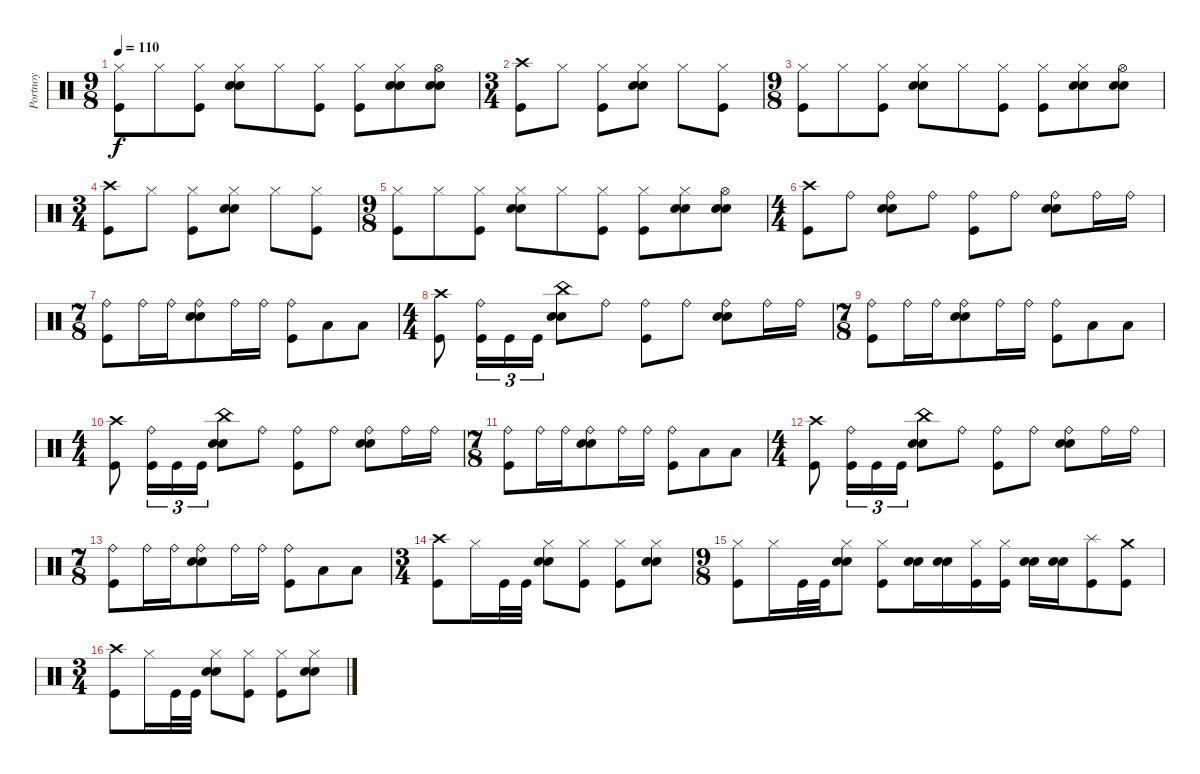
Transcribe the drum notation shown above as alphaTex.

\track ("Portnoy" "Portnoy") {instrument percussion}
\staff {score}
\articulation defaults
\ts (9 8)
\tempo 110
\clef neutral
\ks c
("Hi-Hat (closed)" "Kick (hit)").8{dy f} "Hi-Hat (closed)".8 ("Hi-Hat (closed)" "Kick (hit)").8 ("Hi-Hat (closed)" "Snare (hit) 2" "Electric Snare (hit)").8 "Hi-Hat (closed)".8 ("Hi-Hat (closed)" "Kick (hit)").8 ("Hi-Hat (closed)" "Kick (hit)").8 ("Hi-Hat (closed)" "Snare (hit) 2" "Electric Snare (hit)").8 ("Hi-Hat (open)" "Snare (hit) 2" "Electric Snare (hit)").8 |
\ts (3 4)
("Crash high (hit)" "Kick (hit)").8 "Hi-Hat (closed)".8 ("Hi-Hat (closed)" "Kick (hit)").8 ("Hi-Hat (closed)" "Snare (hit) 2" "Electric Snare (hit)").8 "Hi-Hat (closed)".8 ("Hi-Hat (closed)" "Kick (hit)").8 |
\ts (9 8)
("Hi-Hat (closed)" "Kick (hit)").8 "Hi-Hat (closed)".8 ("Hi-Hat (closed)" "Kick (hit)").8 ("Hi-Hat (closed)" "Snare (hit) 2" "Electric Snare (hit)").8 "Hi-Hat (closed)".8 ("Hi-Hat (closed)" "Kick (hit)").8 ("Hi-Hat (closed)" "Kick (hit)").8 ("Hi-Hat (closed)" "Snare (hit) 2" "Electric Snare (hit)").8 ("Hi-Hat (open)" "Snare (hit) 2" "Electric Snare (hit)").8 |
\ts (3 4)
("Crash high (hit)" "Kick (hit)").8 "Hi-Hat (closed)".8 ("Hi-Hat (closed)" "Kick (hit)").8 ("Hi-Hat (closed)" "Snare (hit) 2" "Electric Snare (hit)").8 "Hi-Hat (closed)".8 ("Hi-Hat (closed)" "Kick (hit)").8 |
\ts (9 8)
("Hi-Hat (closed)" "Kick (hit)").8 "Hi-Hat (closed)".8 ("Hi-Hat (closed)" "Kick (hit)").8 ("Hi-Hat (closed)" "Snare (hit) 2" "Electric Snare (hit)").8 "Hi-Hat (closed)".8 ("Hi-Hat (closed)" "Kick (hit)").8 ("Hi-Hat (closed)" "Kick (hit)").8 ("Hi-Hat (closed)" "Snare (hit) 2" "Electric Snare (hit)").8 ("Hi-Hat (open)" "Snare (hit) 2" "Electric Snare (hit)").8 |
\ts (4 4)
("Crash high (hit)" "Kick (hit)").8 "Ride (bell)".8 ("Ride (bell)" "Snare (hit) 2" "Electric Snare (hit)").8 "Ride (bell)".8 ("Ride (bell)" "Kick (hit)").8 "Ride (bell)".8 ("Ride (bell)" "Snare (hit) 2" "Electric Snare (hit)").8 "Ride (bell)".16 "Ride (bell)".16 |
\ts (7 8)
("Ride (bell)" "Kick (hit)").8 "Ride (bell)".16 "Ride (bell)".16 ("Ride (bell)" "Snare (hit) 2" "Electric Snare (hit)").8 "Ride (bell)".16 "Ride (bell)".16 ("Ride (bell)" "Kick (hit)").8 "Low Tom (hit)".8 "Low Tom (hit)".8 |
\ts (4 4)
("Crash high (hit)" "Kick (hit)").8 ("Ride (bell)" "Kick (hit)").16{tu (3 2)} "Kick (hit)".16{tu (3 2)} "Kick (hit)".16{tu (3 2)} ("China (hit)" "Snare (hit) 2" "Electric Snare (hit)").8 "Ride (bell)".8 ("Ride (bell)" "Kick (hit)").8 "Ride (bell)".8 ("Ride (bell)" "Snare (hit) 2" "Electric Snare (hit)").8 "Ride (bell)".16 "Ride (bell)".16 |
\ts (7 8)
("Ride (bell)" "Kick (hit)").8 "Ride (bell)".16 "Ride (bell)".16 ("Ride (bell)" "Snare (hit) 2" "Electric Snare (hit)").8 "Ride (bell)".16 "Ride (bell)".16 ("Ride (bell)" "Kick (hit)").8 "Low Tom (hit)".8 "Low Tom (hit)".8 |
\ts (4 4)
("Crash high (hit)" "Kick (hit)").8 ("Ride (bell)" "Kick (hit)").16{tu (3 2)} "Kick (hit)".16{tu (3 2)} "Kick (hit)".16{tu (3 2)} ("China (hit)" "Snare (hit) 2" "Electric Snare (hit)").8 "Ride (bell)".8 ("Ride (bell)" "Kick (hit)").8 "Ride (bell)".8 ("Ride (bell)" "Snare (hit) 2" "Electric Snare (hit)").8 "Ride (bell)".16 "Ride (bell)".16 |
\ts (7 8)
("Ride (bell)" "Kick (hit)").8 "Ride (bell)".16 "Ride (bell)".16 ("Ride (bell)" "Snare (hit) 2" "Electric Snare (hit)").8 "Ride (bell)".16 "Ride (bell)".16 ("Ride (bell)" "Kick (hit)").8 "Low Tom (hit)".8 "Low Tom (hit)".8 |
\ts (4 4)
("Crash high (hit)" "Kick (hit)").8 ("Ride (bell)" "Kick (hit)").16{tu (3 2)} "Kick (hit)".16{tu (3 2)} "Kick (hit)".16{tu (3 2)} ("China (hit)" "Snare (hit) 2" "Electric Snare (hit)").8 "Ride (bell)".8 ("Ride (bell)" "Kick (hit)").8 "Ride (bell)".8 ("Ride (bell)" "Snare (hit) 2" "Electric Snare (hit)").8 "Ride (bell)".16 "Ride (bell)".16 |
\ts (7 8)
("Ride (bell)" "Kick (hit)").8 "Ride (bell)".16 "Ride (bell)".16 ("Ride (bell)" "Snare (hit) 2" "Electric Snare (hit)").8 "Ride (bell)".16 "Ride (bell)".16 ("Ride (bell)" "Kick (hit)").8 "Low Tom (hit)".8 "Low Tom (hit)".8 |
\ts (3 4)
("Crash high (hit)" "Kick (hit)").8 "Hi-Hat (closed)".16 "Kick (hit)".32 "Kick (hit)".32 ("Hi-Hat (closed)" "Snare (hit) 2" "Electric Snare (hit)").8 ("Hi-Hat (closed)" "Kick (hit)").8 ("Hi-Hat (closed)" "Kick (hit)").8 ("Hi-Hat (closed)" "Snare (hit) 2" "Electric Snare (hit)").8 |
\ts (9 8)
("Hi-Hat (closed)" "Kick (hit)").8 "Hi-Hat (closed)".16 "Kick (hit)".32 "Kick (hit)".32 ("Hi-Hat (closed)" "Snare (hit) 2" "Electric Snare (hit)").8 ("Hi-Hat (closed)" "Kick (hit)").8 ("Snare (hit) 2" "Electric Snare (hit)").16 ("Snare (hit) 2" "Electric Snare (hit)").16 ("Hi-Hat (closed)" "Kick (hit)").16 ("Hi-Hat (closed)" "Kick (hit)").16 ("Snare (hit) 2" "Electric Snare (hit)").16 ("Snare (hit) 2" "Electric Snare (hit)").16 ("Splash (hit)" "Kick (hit)").8 ("Crash medium (hit)" "Kick (hit)").8 |
\ts (3 4)
("Crash high (hit)" "Kick (hit)").8 "Hi-Hat (closed)".16 "Kick (hit)".32 "Kick (hit)".32 ("Hi-Hat (closed)" "Snare (hit) 2" "Electric Snare (hit)").8 ("Hi-Hat (closed)" "Kick (hit)").8 ("Hi-Hat (closed)" "Kick (hit)").8 ("Hi-Hat (closed)" "Snare (hit) 2" "Electric Snare (hit)").8
